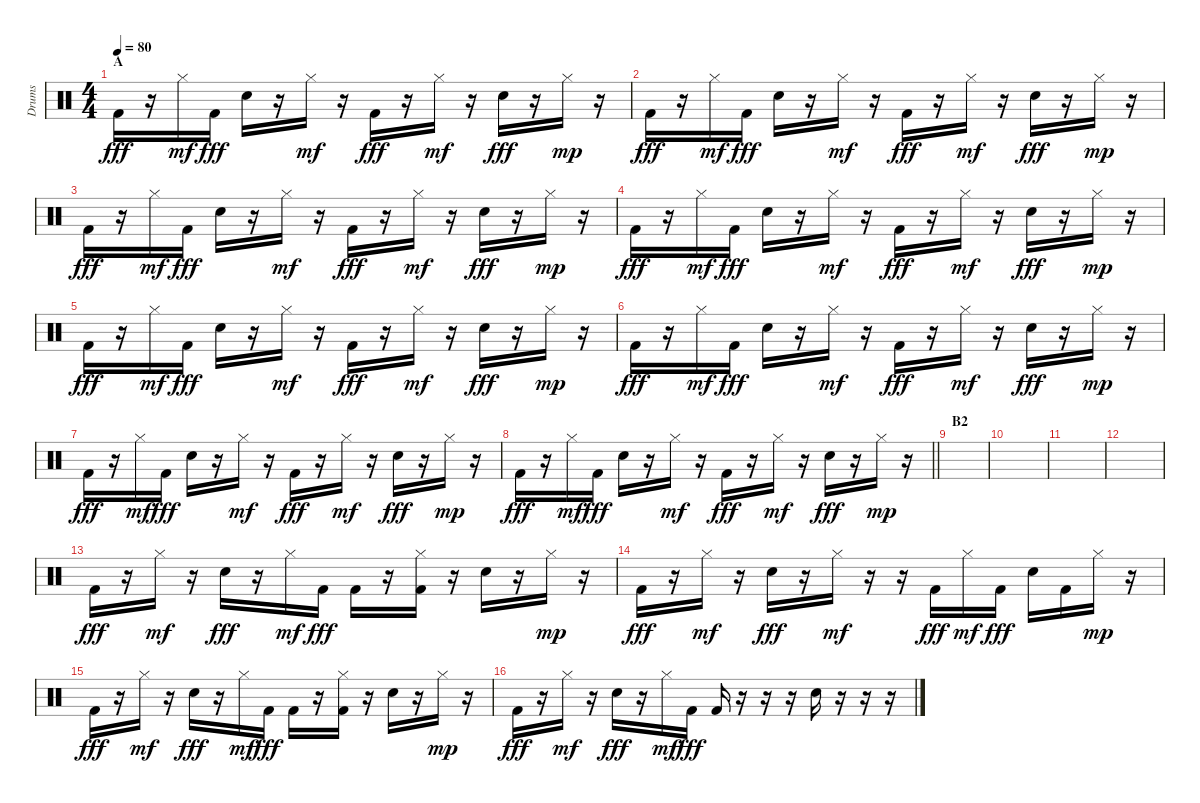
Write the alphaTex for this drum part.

\track ("Drums" "Drums") {instrument percussion}
\staff
\articulation defaults
\ts (4 4)
\section ("" "A")
\tempo 80
\clef neutral
\ks c "Kick (hit) 2".16{dy fff}
r.16 "Hi-Hat (closed)".16{dy mf} "Kick (hit) 2".16{dy fff} "Electric Snare (hit)".16 r.16 "Hi-Hat (closed)".16{dy mf} r.16 "Kick (hit) 2".16{dy fff} r.16 "Hi-Hat (closed)".16{dy mf} r.16 "Electric Snare (hit)".16{dy fff} r.16 "Hi-Hat (closed)".16{dy mp} r.16 |
"Kick (hit) 2".16{dy fff} r.16 "Hi-Hat (closed)".16{dy mf} "Kick (hit) 2".16{dy fff} "Electric Snare (hit)".16 r.16 "Hi-Hat (closed)".16{dy mf} r.16 "Kick (hit) 2".16{dy fff} r.16 "Hi-Hat (closed)".16{dy mf} r.16 "Electric Snare (hit)".16{dy fff} r.16 "Hi-Hat (closed)".16{dy mp} r.16 |
"Kick (hit) 2".16{dy fff} r.16 "Hi-Hat (closed)".16{dy mf} "Kick (hit) 2".16{dy fff} "Electric Snare (hit)".16 r.16 "Hi-Hat (closed)".16{dy mf} r.16 "Kick (hit) 2".16{dy fff} r.16 "Hi-Hat (closed)".16{dy mf} r.16 "Electric Snare (hit)".16{dy fff} r.16 "Hi-Hat (closed)".16{dy mp} r.16 |
"Kick (hit) 2".16{dy fff} r.16 "Hi-Hat (closed)".16{dy mf} "Kick (hit) 2".16{dy fff} "Electric Snare (hit)".16 r.16 "Hi-Hat (closed)".16{dy mf} r.16 "Kick (hit) 2".16{dy fff} r.16 "Hi-Hat (closed)".16{dy mf} r.16 "Electric Snare (hit)".16{dy fff} r.16 "Hi-Hat (closed)".16{dy mp} r.16 |
"Kick (hit) 2".16{dy fff} r.16 "Hi-Hat (closed)".16{dy mf} "Kick (hit) 2".16{dy fff} "Electric Snare (hit)".16 r.16 "Hi-Hat (closed)".16{dy mf} r.16 "Kick (hit) 2".16{dy fff} r.16 "Hi-Hat (closed)".16{dy mf} r.16 "Electric Snare (hit)".16{dy fff} r.16 "Hi-Hat (closed)".16{dy mp} r.16 |
"Kick (hit) 2".16{dy fff} r.16 "Hi-Hat (closed)".16{dy mf} "Kick (hit) 2".16{dy fff} "Electric Snare (hit)".16 r.16 "Hi-Hat (closed)".16{dy mf} r.16 "Kick (hit) 2".16{dy fff} r.16 "Hi-Hat (closed)".16{dy mf} r.16 "Electric Snare (hit)".16{dy fff} r.16 "Hi-Hat (closed)".16{dy mp} r.16 |
"Kick (hit) 2".16{dy fff} r.16 "Hi-Hat (closed)".16{dy mf} "Kick (hit) 2".16{dy fff} "Electric Snare (hit)".16 r.16 "Hi-Hat (closed)".16{dy mf} r.16 "Kick (hit) 2".16{dy fff} r.16 "Hi-Hat (closed)".16{dy mf} r.16 "Electric Snare (hit)".16{dy fff} r.16 "Hi-Hat (closed)".16{dy mp} r.16 |
\barLineRight lightlight "Kick (hit) 2".16{dy fff}
r.16 "Hi-Hat (closed)".16{dy mf} "Kick (hit) 2".16{dy fff} "Electric Snare (hit)".16 r.16 "Hi-Hat (closed)".16{dy mf} r.16 "Kick (hit) 2".16{dy fff} r.16 "Hi-Hat (closed)".16{dy mf} r.16 "Electric Snare (hit)".16{dy fff} r.16 "Hi-Hat (closed)".16{dy mp} r.16 |
\section ("" "B2")
|
|
|
|
"Kick (hit) 2".16{dy fff} r.16 "Hi-Hat (closed)".16{dy mf} r.16 "Electric Snare (hit)".16{dy fff} r.16 "Hi-Hat (closed)".16{dy mf} "Kick (hit) 2".16{dy fff} "Kick (hit) 2".16 r.16 ("Hi-Hat (closed)" "Kick (hit) 2").16 r.16 "Electric Snare (hit)".16 r.16 "Hi-Hat (closed)".16{dy mp} r.16 |
"Kick (hit) 2".16{dy fff} r.16 "Hi-Hat (closed)".16{dy mf} r.16 "Electric Snare (hit)".16{dy fff} r.16 "Hi-Hat (closed)".16{dy mf} r.16 r.16 "Kick (hit) 2".16{dy fff} "Hi-Hat (closed)".16{dy mf} "Kick (hit) 2".16{dy fff} "Electric Snare (hit)".16 "Kick (hit) 2".16 "Hi-Hat (closed)".16{dy mp} r.16 |
"Kick (hit) 2".16{dy fff} r.16 "Hi-Hat (closed)".16{dy mf} r.16 "Electric Snare (hit)".16{dy fff} r.16 "Hi-Hat (closed)".16{dy mf} "Kick (hit) 2".16{dy fff} "Kick (hit) 2".16 r.16 ("Hi-Hat (closed)" "Kick (hit) 2").16 r.16 "Electric Snare (hit)".16 r.16 "Hi-Hat (closed)".16{dy mp} r.16 |
"Kick (hit) 2".16{dy fff} r.16 "Hi-Hat (closed)".16{dy mf} r.16 "Electric Snare (hit)".16{dy fff} r.16 "Hi-Hat (closed)".16{dy mf} "Kick (hit) 2".16{dy fff} "Kick (hit) 2".16 r.16 r.16 r.16 "Electric Snare (hit)".16 r.16 r.16 r.16
